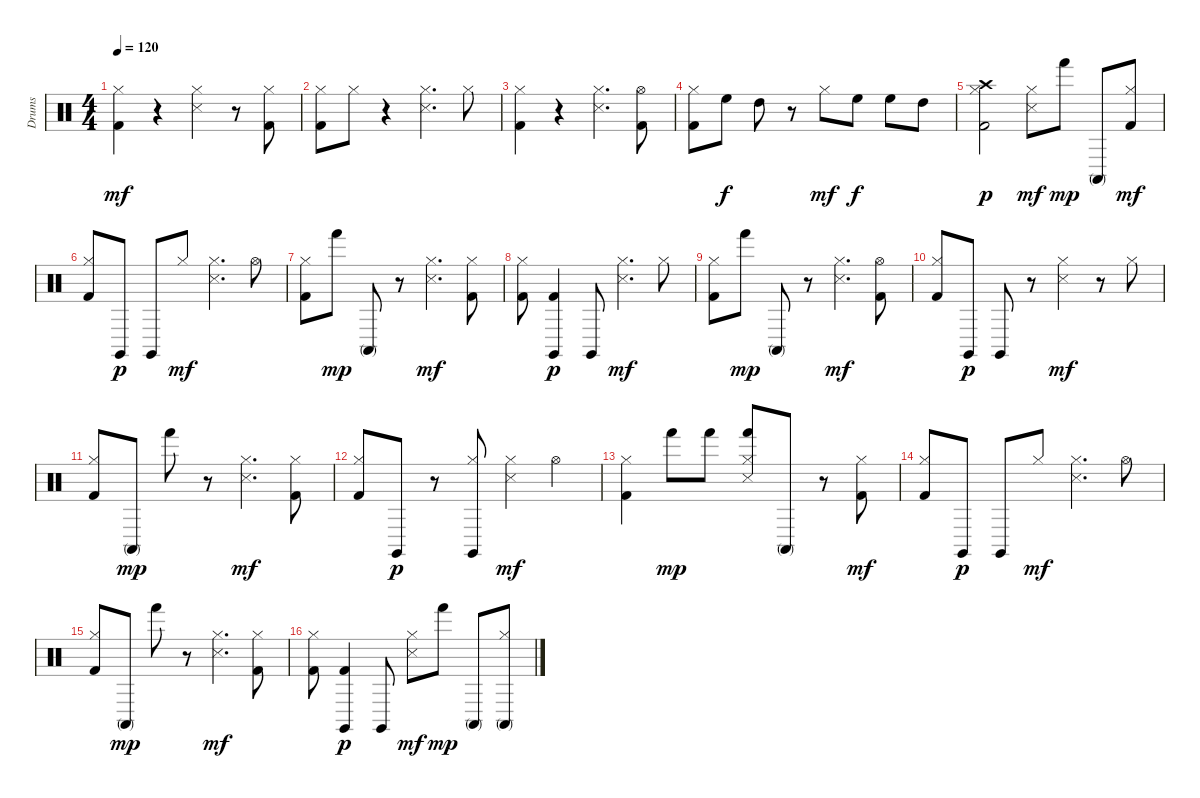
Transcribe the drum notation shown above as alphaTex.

\track ("Drums" "Drums") {instrument percussion}
\staff {score}
\articulation defaults
\ts (4 4)
\tempo 120
\clef neutral
\ks c
("Kick (hit) 2" "Hi-Hat (closed)").4{dy mf} r.4 ("Hi-Hat (closed)" "Snare (side stick) 3").4 r.8 ("Kick (hit) 2" "Hi-Hat (closed)").8 |
("Kick (hit) 2" "Hi-Hat (closed)").8 "Hi-Hat (closed)".8 r.4 ("Hi-Hat (closed)" "Snare (side stick) 3").4{d} "Hi-Hat (closed)".8 |
("Kick (hit) 2" "Hi-Hat (closed)").4 r.4 ("Hi-Hat (closed)" "Snare (side stick) 3").4{d} ("Kick (hit) 2" "Hi-Hat (open)").8 |
("Kick (hit) 2" "Hi-Hat (closed)").8 "High Floor Tom (hit)".8{dy f} "High Tom (hit)".8 r.8 "Hi-Hat (closed)".8{dy mf} "High Floor Tom (hit)".8{dy f} "High Floor Tom (hit)".8 "High Tom (hit)".8 |
("Kick (hit) 2" "Hi-Hat (closed)" "Crash high (hit)").2{dy p} ("Hi-Hat (closed)" "Snare (side stick) 3").8{dy mf} "Hand (hit)".8{dy mp} "Conga high (mute)".8 ("Kick (hit) 2" "Hi-Hat (closed)").8{dy mf} |
("Kick (hit) 2" "Hi-Hat (closed)").8 "Claves (hit)".8{dy p} "Claves (hit)".8 "Hi-Hat (closed)".8{dy mf} ("Hi-Hat (closed)" "Snare (side stick) 3").4{d} "Hi-Hat (open)".8 |
("Kick (hit) 2" "Hi-Hat (closed)").8 "Hand (hit)".8{dy mp} "Conga high (mute)".8 r.8 ("Hi-Hat (closed)" "Snare (side stick) 3").4{d dy mf} ("Kick (hit) 2" "Hi-Hat (closed)").8 |
("Kick (hit) 2" "Hi-Hat (closed)").8 ("Kick (hit) 2" "Claves (hit)").4{dy p} "Claves (hit)".8 ("Hi-Hat (closed)" "Snare (side stick) 3").4{d dy mf} "Hi-Hat (closed)".8 |
("Kick (hit) 2" "Hi-Hat (closed)").8 "Hand (hit)".8{dy mp} "Conga high (mute)".8 r.8 ("Hi-Hat (closed)" "Snare (side stick) 3").4{d dy mf} ("Kick (hit) 2" "Hi-Hat (open)").8 |
("Kick (hit) 2" "Hi-Hat (closed)").8 "Claves (hit)".8{dy p} "Claves (hit)".8 r.8 ("Hi-Hat (closed)" "Snare (side stick) 3").4{dy mf} r.8 "Hi-Hat (closed)".8 |
("Kick (hit) 2" "Hi-Hat (closed)").8 "Conga high (mute)".8{dy mp} "Hand (hit)".8 r.8 ("Hi-Hat (closed)" "Snare (side stick) 3").4{d dy mf} ("Kick (hit) 2" "Hi-Hat (closed)").8 |
("Kick (hit) 2" "Hi-Hat (closed)").8 "Claves (hit)".8{dy p} r.8 ("Hi-Hat (closed)" "Claves (hit)").8 ("Hi-Hat (closed)" "Snare (side stick) 3").4{dy mf} "Hi-Hat (open)".4 |
("Kick (hit) 2" "Hi-Hat (closed)").4 "Hand (hit)".8{dy mp} "Hand (hit)".8 ("Hi-Hat (closed)" "Snare (side stick) 3" "Hand (hit)").8 "Conga high (mute)".8 r.8 ("Kick (hit) 2" "Hi-Hat (closed)").8{dy mf} |
("Kick (hit) 2" "Hi-Hat (closed)").8 "Claves (hit)".8{dy p} "Claves (hit)".8 "Hi-Hat (closed)".8{dy mf} ("Hi-Hat (closed)" "Snare (side stick) 3").4{d} "Hi-Hat (open)".8 |
("Kick (hit) 2" "Hi-Hat (closed)").8 "Conga high (mute)".8{dy mp} "Hand (hit)".8 r.8 ("Hi-Hat (closed)" "Snare (side stick) 3").4{d dy mf} ("Kick (hit) 2" "Hi-Hat (closed)").8 |
("Kick (hit) 2" "Hi-Hat (closed)").8 ("Kick (hit) 2" "Claves (hit)").4{dy p} "Claves (hit)".8 ("Hi-Hat (closed)" "Snare (side stick) 3").8{dy mf} "Hand (hit)".8{dy mp} "Conga high (mute)".8 ("Hi-Hat (closed)" "Conga high (mute)").8
